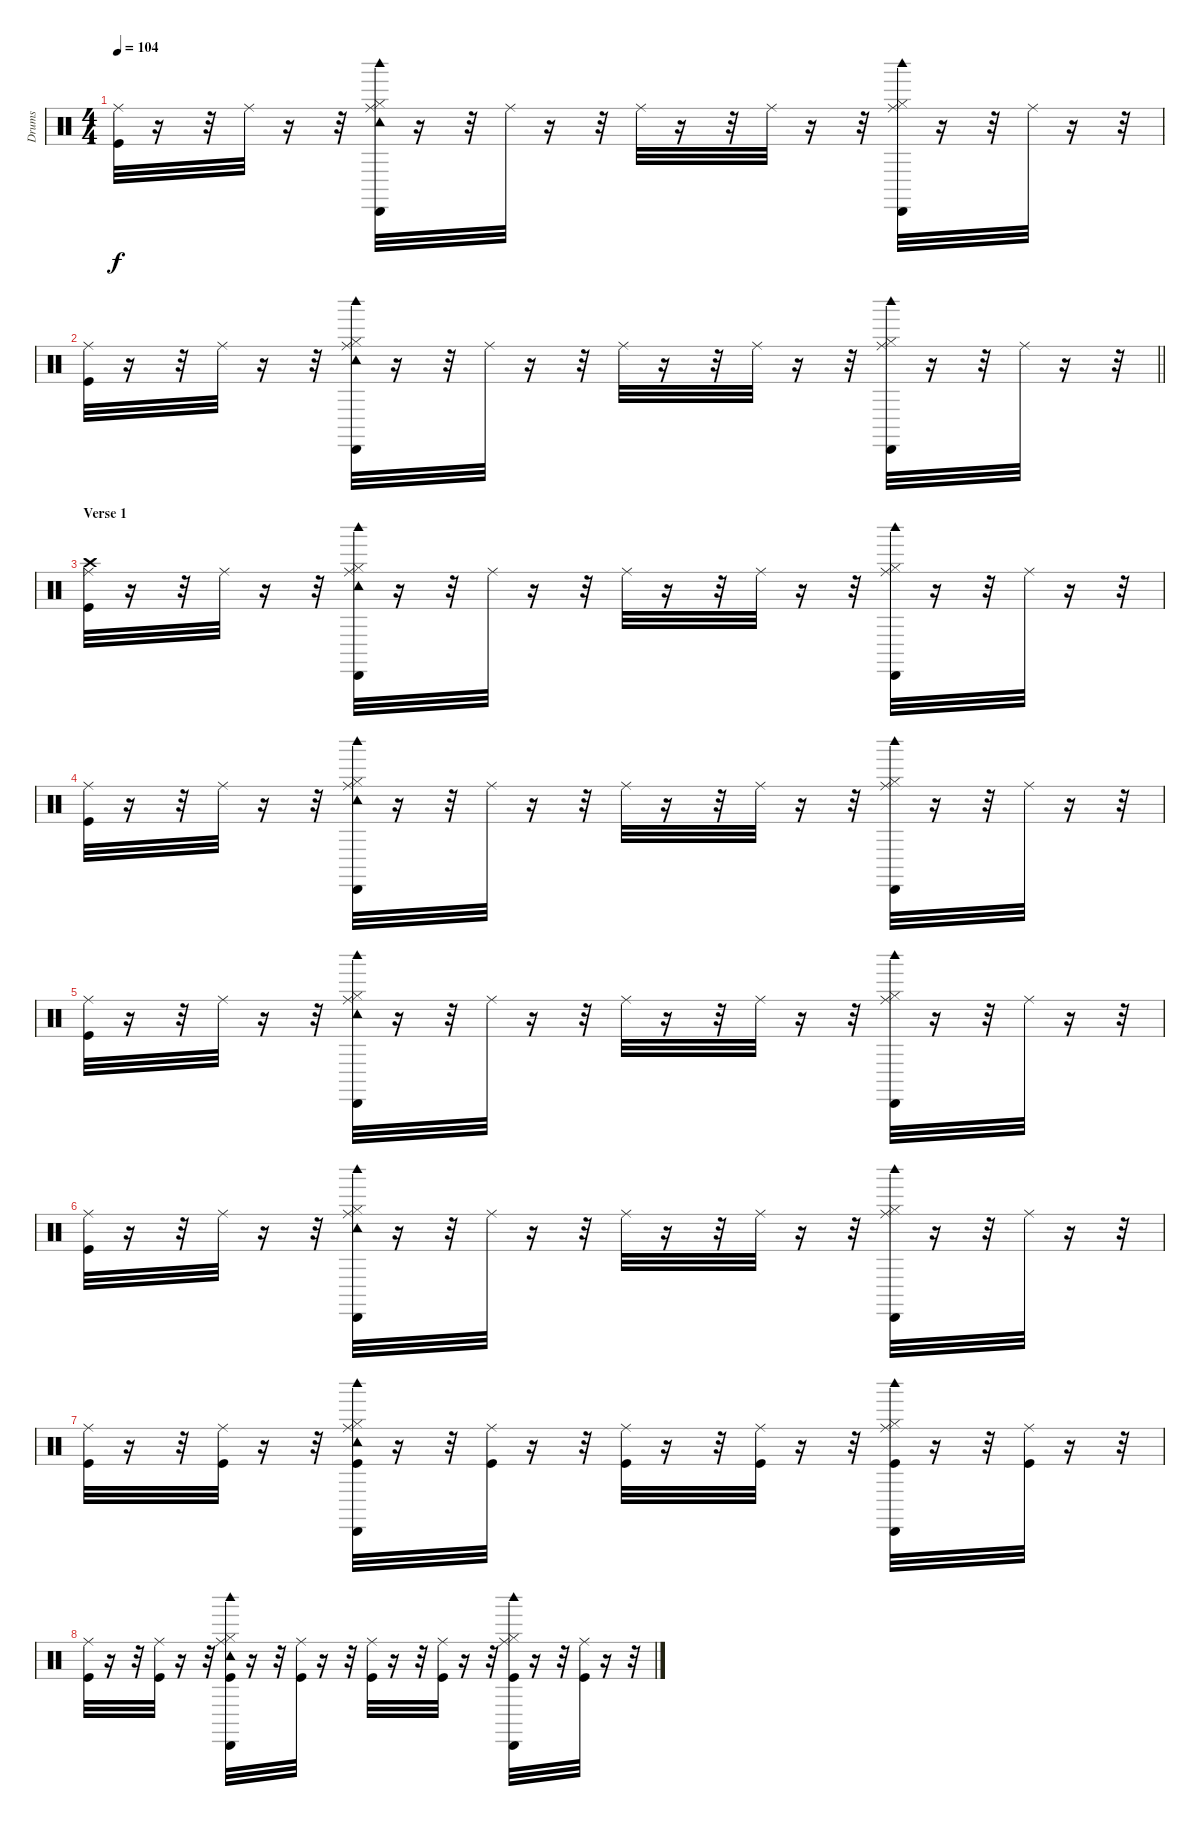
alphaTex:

\track ("Drums" "Drums") {instrument percussion}
\staff {score}
\articulation defaults
\ts (4 4)
\tempo 104
\clef neutral
\ks c
("Kick (hit)" "Ride (middle)").32{dy f} r.16 r.32 "Ride (middle)".32 r.16 r.32 ("Hi-Hat (closed)" "Ride (middle)" "Tambourine (hit)" "Cabasa (hit)" "Woodblock high (hit)").32 r.16 r.32 "Ride (middle)".32 r.16 r.32 "Ride (middle)".32 r.16 r.32 "Ride (middle)".32 r.16 r.32 ("Hi-Hat (closed)" "Ride (middle)" "Cabasa (hit)" "Woodblock high (hit)").32 r.16 r.32 "Ride (middle)".32 r.16 r.32 |
\barLineRight lightlight
("Kick (hit)" "Ride (middle)").32 r.16 r.32 "Ride (middle)".32 r.16 r.32 ("Hi-Hat (closed)" "Ride (middle)" "Tambourine (hit)" "Cabasa (hit)" "Woodblock high (hit)").32 r.16 r.32 "Ride (middle)".32 r.16 r.32 "Ride (middle)".32 r.16 r.32 "Ride (middle)".32 r.16 r.32 ("Hi-Hat (closed)" "Ride (middle)" "Cabasa (hit)" "Woodblock high (hit)").32 r.16 r.32 "Ride (middle)".32 r.16 r.32 |
\section ("" "Verse 1")
("Kick (hit)" "Crash high (hit)" "Ride (middle)").32 r.16 r.32 "Ride (middle)".32 r.16 r.32 ("Hi-Hat (closed)" "Ride (middle)" "Tambourine (hit)" "Cabasa (hit)" "Woodblock high (hit)").32 r.16 r.32 "Ride (middle)".32 r.16 r.32 "Ride (middle)".32 r.16 r.32 "Ride (middle)".32 r.16 r.32 ("Hi-Hat (closed)" "Ride (middle)" "Cabasa (hit)" "Woodblock high (hit)").32 r.16 r.32 "Ride (middle)".32 r.16 r.32 |
("Kick (hit)" "Ride (middle)").32 r.16 r.32 "Ride (middle)".32 r.16 r.32 ("Hi-Hat (closed)" "Ride (middle)" "Tambourine (hit)" "Cabasa (hit)" "Woodblock high (hit)").32 r.16 r.32 "Ride (middle)".32 r.16 r.32 "Ride (middle)".32 r.16 r.32 "Ride (middle)".32 r.16 r.32 ("Hi-Hat (closed)" "Ride (middle)" "Cabasa (hit)" "Woodblock high (hit)").32 r.16 r.32 "Ride (middle)".32 r.16 r.32 |
("Kick (hit)" "Ride (middle)").32 r.16 r.32 "Ride (middle)".32 r.16 r.32 ("Hi-Hat (closed)" "Ride (middle)" "Tambourine (hit)" "Cabasa (hit)" "Woodblock high (hit)").32 r.16 r.32 "Ride (middle)".32 r.16 r.32 "Ride (middle)".32 r.16 r.32 "Ride (middle)".32 r.16 r.32 ("Hi-Hat (closed)" "Ride (middle)" "Cabasa (hit)" "Woodblock high (hit)").32 r.16 r.32 "Ride (middle)".32 r.16 r.32 |
("Kick (hit)" "Ride (middle)").32 r.16 r.32 "Ride (middle)".32 r.16 r.32 ("Hi-Hat (closed)" "Ride (middle)" "Tambourine (hit)" "Cabasa (hit)" "Woodblock high (hit)").32 r.16 r.32 "Ride (middle)".32 r.16 r.32 "Ride (middle)".32 r.16 r.32 "Ride (middle)".32 r.16 r.32 ("Hi-Hat (closed)" "Ride (middle)" "Cabasa (hit)" "Woodblock high (hit)").32 r.16 r.32 "Ride (middle)".32 r.16 r.32 |
("Kick (hit)" "Ride (middle)").32 r.16 r.32 ("Kick (hit)" "Ride (middle)").32 r.16 r.32 ("Kick (hit)" "Hi-Hat (closed)" "Ride (middle)" "Tambourine (hit)" "Cabasa (hit)" "Woodblock high (hit)").32 r.16 r.32 ("Kick (hit)" "Ride (middle)").32 r.16 r.32 ("Kick (hit)" "Ride (middle)").32 r.16 r.32 ("Kick (hit)" "Ride (middle)").32 r.16 r.32 ("Kick (hit)" "Hi-Hat (closed)" "Ride (middle)" "Cabasa (hit)" "Woodblock high (hit)").32 r.16 r.32 ("Kick (hit)" "Ride (middle)").32 r.16 r.32 |
("Kick (hit)" "Ride (middle)").32 r.16 r.32 ("Kick (hit)" "Ride (middle)").32 r.16 r.32 ("Kick (hit)" "Hi-Hat (closed)" "Ride (middle)" "Tambourine (hit)" "Cabasa (hit)" "Woodblock high (hit)").32 r.16 r.32 ("Kick (hit)" "Ride (middle)").32 r.16 r.32 ("Kick (hit)" "Ride (middle)").32 r.16 r.32 ("Kick (hit)" "Ride (middle)").32 r.16 r.32 ("Kick (hit)" "Hi-Hat (closed)" "Ride (middle)" "Cabasa (hit)" "Woodblock high (hit)").32 r.16 r.32 ("Kick (hit)" "Ride (middle)").32 r.16 r.32
